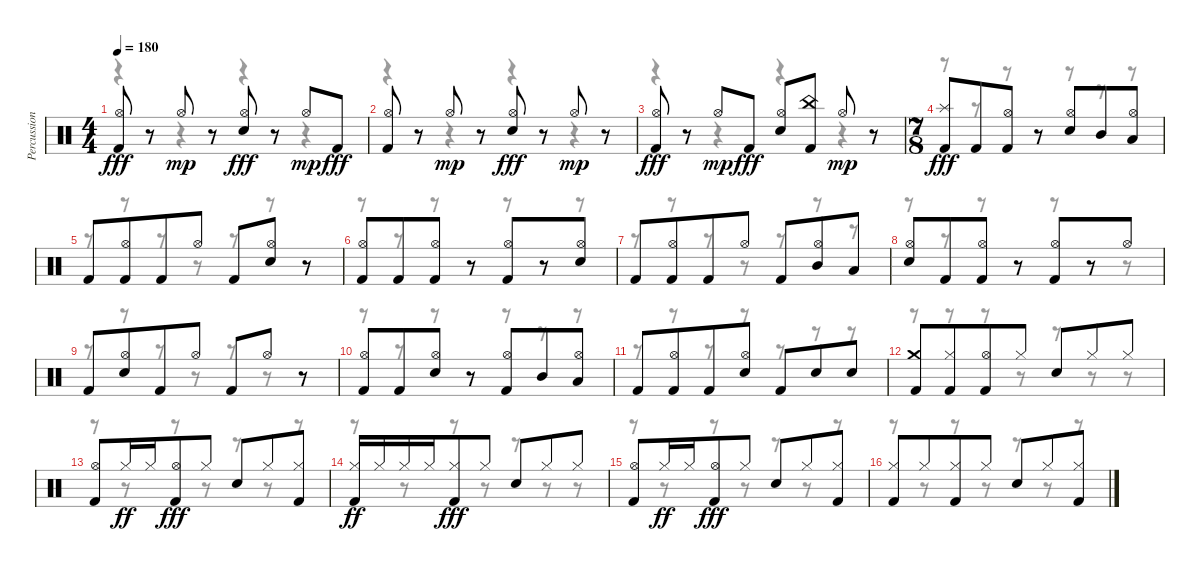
\track ("Percussion" "Percussion") {instrument percussion}
\staff {score}
\articulation defaults
\voice
\ts (4 4)
\tempo 180
\clef neutral
\ks c
("Hi-Hat (open)" "Kick (hit) 2").8{dy fff} r.8 "Hi-Hat (open)".8{dy mp} r.8 ("Hi-Hat (open)" "Snare (hit) 2").8{dy fff} r.8 "Hi-Hat (open)".8{dy mp} "Kick (hit) 2".8{dy fff} |
("Hi-Hat (open)" "Kick (hit) 2").8 r.8 "Hi-Hat (open)".8{dy mp} r.8 ("Hi-Hat (open)" "Snare (hit) 2").8{dy fff} r.8 "Hi-Hat (open)".8{dy mp} r.8 |
("Hi-Hat (open)" "Kick (hit) 2").8{dy fff} r.8 "Hi-Hat (open)".8{dy mp} "Kick (hit) 2".8{dy fff} ("Hi-Hat (open)" "Snare (hit) 2").8 ("Kick (hit) 2" "China (hit)").8 "Hi-Hat (open)".8{dy mp} r.8 |
\ts (7 8)
("Kick (hit) 2" "Splash (hit)").8{dy fff} "Kick (hit) 2".8 ("Kick (hit) 2" "Hi-Hat (open)").8 r.8 ("Snare (hit) 2" "Hi-Hat (open)").8 "Mid Tom (hit)".8 ("Low Tom (hit)" "Hi-Hat (open)").8 |
"Kick (hit) 2".8 ("Kick (hit) 2" "Hi-Hat (open)").8 "Kick (hit) 2".8 "Hi-Hat (open)".8 "Kick (hit) 2".8 ("Snare (hit) 2" "Hi-Hat (open)").8 r.8 |
("Kick (hit) 2" "Hi-Hat (open)").8 "Kick (hit) 2".8 ("Kick (hit) 2" "Hi-Hat (open)").8 r.8 ("Kick (hit) 2" "Hi-Hat (open)").8 r.8 ("Snare (hit) 2" "Hi-Hat (open)").8 |
"Kick (hit) 2".8 ("Kick (hit) 2" "Hi-Hat (open)").8 "Kick (hit) 2".8 "Hi-Hat (open)".8 "Kick (hit) 2".8 ("Hi-Hat (open)" "Mid Tom (hit)").8 "Low Tom (hit)".8 |
("Snare (hit) 2" "Hi-Hat (open)").8 "Kick (hit) 2".8 ("Kick (hit) 2" "Hi-Hat (open)").8 r.8 ("Kick (hit) 2" "Hi-Hat (open)").8 r.8 "Hi-Hat (open)".8 |
"Kick (hit) 2".8 ("Snare (hit) 2" "Hi-Hat (open)").8 "Kick (hit) 2".8 "Hi-Hat (open)".8 "Kick (hit) 2".8 "Hi-Hat (open)".8 r.8 |
("Kick (hit) 2" "Hi-Hat (open)").8 "Kick (hit) 2".8 ("Snare (hit) 2" "Hi-Hat (open)").8 r.8 ("Kick (hit) 2" "Hi-Hat (open)").8 "Mid Tom (hit)".8 ("Low Tom (hit)" "Hi-Hat (open)").8 |
"Kick (hit) 2".8 ("Kick (hit) 2" "Hi-Hat (open)").8 "Kick (hit) 2".8 ("Snare (hit) 2" "Hi-Hat (open)").8 "Kick (hit) 2".8 "Snare (hit) 2".8 "Snare (hit) 2".8 |
("Kick (hit) 2" "Crash medium (hit)").8 ("Kick (hit) 2" "Hi-Hat (closed)").8 ("Hi-Hat (open)" "Kick (hit) 2").8 "Hi-Hat (closed)".8 "Snare (hit) 2".8 "Hi-Hat (closed)".8 "Hi-Hat (closed)".8 |
("Hi-Hat (open)" "Kick (hit) 2").8 "Hi-Hat (closed)".16{dy ff} "Hi-Hat (closed)".16 ("Hi-Hat (open)" "Kick (hit) 2").8{dy fff} "Hi-Hat (closed)".8 "Snare (hit) 2".8 "Hi-Hat (closed)".8 ("Kick (hit) 2" "Hi-Hat (closed)").8 |
("Hi-Hat (closed)" "Kick (hit) 2").16{dy ff} "Hi-Hat (closed)".16 "Hi-Hat (closed)".16 "Hi-Hat (closed)".16 ("Kick (hit) 2" "Hi-Hat (closed)").8{dy fff} "Hi-Hat (closed)".8 "Snare (hit) 2".8 "Hi-Hat (closed)".8 "Hi-Hat (closed)".8 |
("Hi-Hat (open)" "Kick (hit) 2").8 "Hi-Hat (closed)".16{dy ff} "Hi-Hat (closed)".16 ("Hi-Hat (open)" "Kick (hit) 2").8{dy fff} "Hi-Hat (closed)".8 "Snare (hit) 2".8 "Hi-Hat (closed)".8 ("Kick (hit) 2" "Hi-Hat (closed)").8 |
("Kick (hit) 2" "Hi-Hat (closed)").8 "Hi-Hat (closed)".8 ("Kick (hit) 2" "Hi-Hat (closed)").8 "Hi-Hat (closed)".8 "Snare (hit) 2".8 "Hi-Hat (closed)".8 ("Kick (hit) 2" "Hi-Hat (closed)").8
\voice
\clef neutral
\ottava regular
\simile none
\ks c
r.4{dy f} r.4 r.4 r.4 |
r.4 r.4 r.4 r.4 |
r.4 r.4 r.4 r.4 |
r.8 r.8 r.8 r.8 r.8 r.8 r.8 |
r.8 r.8 r.8 r.8 r.8 r.8 r.8 |
r.8 r.8 r.8 r.8 r.8 r.8 r.8 |
r.8 r.8 r.8 r.8 r.8 r.8 r.8 |
r.8 r.8 r.8 r.8 r.8 r.8 r.8 |
r.8 r.8 r.8 r.8 r.8 r.8 r.8 |
r.8 r.8 r.8 r.8 r.8 r.8 r.8 |
r.8 r.8 r.8 r.8 r.8 r.8 r.8 |
r.8 r.8 r.8 r.8 r.8 r.8 r.8 |
r.8 r.8 r.8 r.8 r.8 r.8 r.8 |
r.8 r.8 r.8 r.8 r.8 r.8 r.8 |
r.8 r.8 r.8 r.8 r.8 r.8 r.8 |
r.8 r.8 r.8 r.8 r.8 r.8 r.8
